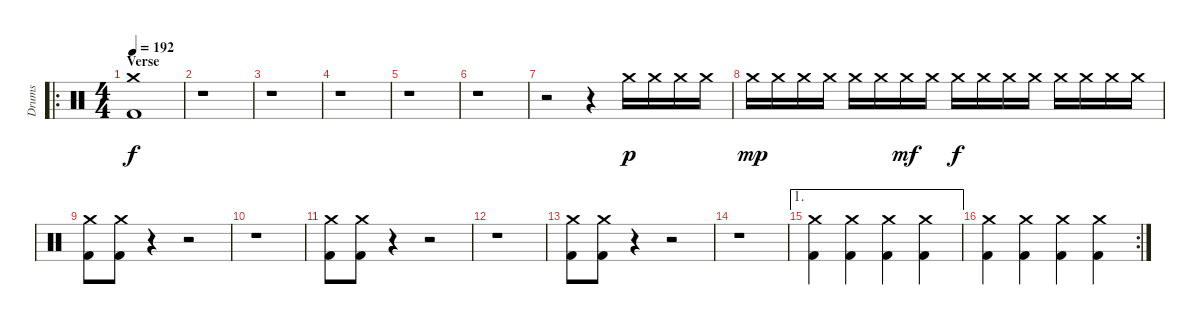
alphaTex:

\track ("Drums" "Drums") {instrument percussion}
\staff {score}
\articulation defaults
\ro
\ts (4 4)
\section ("" "Verse")
\tempo 192
\tempo 216
\tempo 192
\clef neutral
\ks c
("Crash medium (hit)" "Kick (hit) 2").1{dy f} |
r.1 |
r.1 |
r.1 |
r.1 |
r.1 |
r.2 r.4 "Crash medium (hit)".16{dy p} "Crash medium (hit)".16 "Crash medium (hit)".16 "Crash medium (hit)".16 |
"Crash medium (hit)".16{dy mp} "Crash medium (hit)".16 "Crash medium (hit)".16 "Crash medium (hit)".16 "Crash medium (hit)".16 "Crash medium (hit)".16 "Crash medium (hit)".16{dy mf} "Crash medium (hit)".16 "Crash medium (hit)".16{dy f} "Crash medium (hit)".16 "Crash medium (hit)".16 "Crash medium (hit)".16 "Crash medium (hit)".16 "Crash medium (hit)".16 "Crash medium (hit)".16 "Crash medium (hit)".16 |
("Crash medium (hit)" "Kick (hit) 2").8 ("Crash medium (hit)" "Kick (hit) 2").8 r.4 r.2 |
r.1 |
("Crash medium (hit)" "Kick (hit) 2").8 ("Crash medium (hit)" "Kick (hit) 2").8 r.4 r.2 |
r.1 |
("Crash medium (hit)" "Kick (hit) 2").8 ("Crash medium (hit)" "Kick (hit) 2").8 r.4 r.2 |
r.1 |
\ae 1
("Crash medium (hit)" "Kick (hit) 2").4 ("Crash medium (hit)" "Kick (hit) 2").4 ("Crash medium (hit)" "Kick (hit) 2").4 ("Crash medium (hit)" "Kick (hit) 2").4 |
\rc 2
("Crash medium (hit)" "Kick (hit) 2").4 ("Crash medium (hit)" "Kick (hit) 2").4 ("Crash medium (hit)" "Kick (hit) 2").4 ("Crash medium (hit)" "Kick (hit) 2").4
